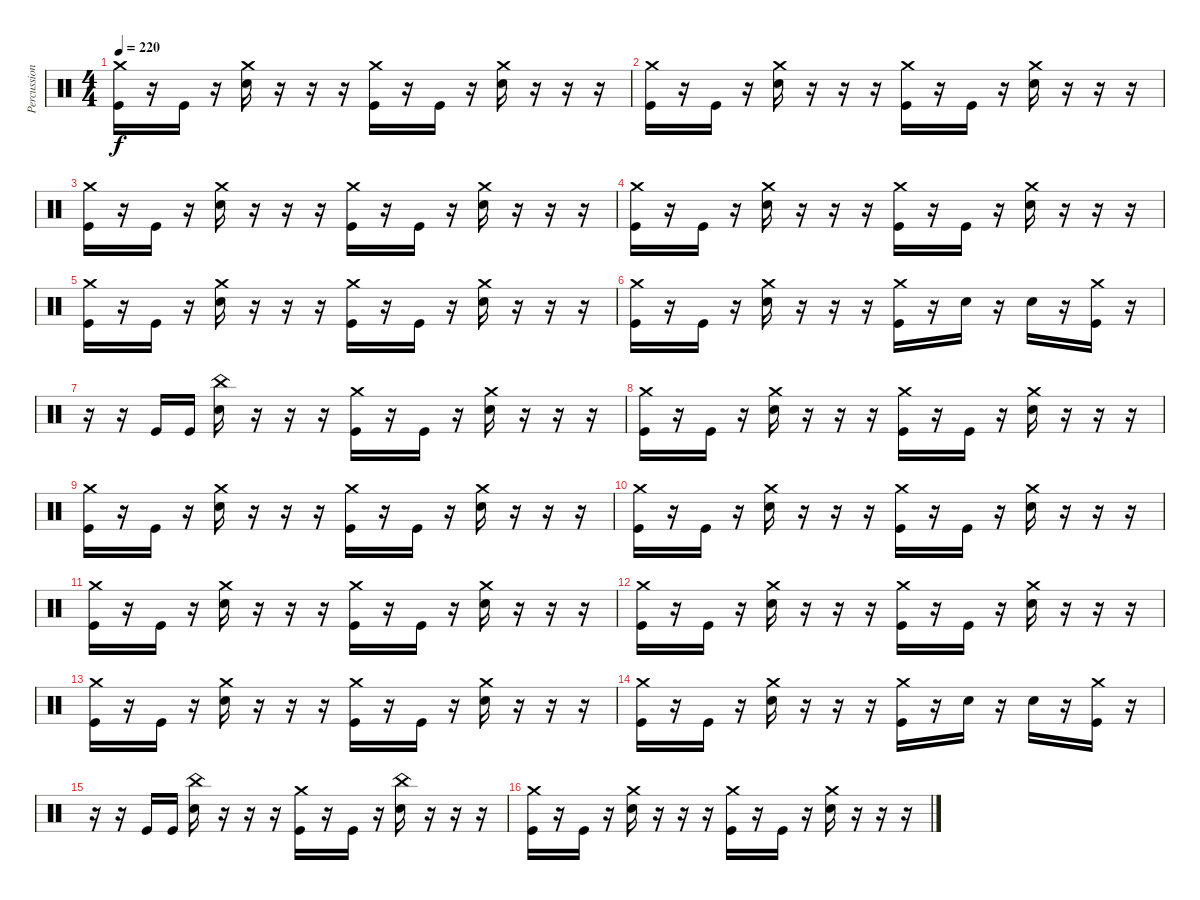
\track ("Percussion" "Percussion") {instrument percussion}
\staff {score}
\articulation defaults
\ts (4 4)
\tempo 220
\clef neutral
\ks c
("Crash medium (hit)" "Kick (hit)").16{dy f} r.16 "Kick (hit)".16 r.16 ("Crash medium (hit)" "Electric Snare (hit)").16 r.16 r.16 r.16 ("Crash medium (hit)" "Kick (hit)").16 r.16 "Kick (hit)".16 r.16 ("Crash medium (hit)" "Electric Snare (hit)").16 r.16 r.16 r.16 |
("Crash medium (hit)" "Kick (hit)").16 r.16 "Kick (hit)".16 r.16 ("Crash medium (hit)" "Electric Snare (hit)").16 r.16 r.16 r.16 ("Crash medium (hit)" "Kick (hit)").16 r.16 "Kick (hit)".16 r.16 ("Crash medium (hit)" "Electric Snare (hit)").16 r.16 r.16 r.16 |
("Crash medium (hit)" "Kick (hit)").16 r.16 "Kick (hit)".16 r.16 ("Crash medium (hit)" "Electric Snare (hit)").16 r.16 r.16 r.16 ("Crash medium (hit)" "Kick (hit)").16 r.16 "Kick (hit)".16 r.16 ("Crash medium (hit)" "Electric Snare (hit)").16 r.16 r.16 r.16 |
("Crash medium (hit)" "Kick (hit)").16 r.16 "Kick (hit)".16 r.16 ("Crash medium (hit)" "Electric Snare (hit)").16 r.16 r.16 r.16 ("Crash medium (hit)" "Kick (hit)").16 r.16 "Kick (hit)".16 r.16 ("Crash medium (hit)" "Electric Snare (hit)").16 r.16 r.16 r.16 |
("Crash medium (hit)" "Kick (hit)").16 r.16 "Kick (hit)".16 r.16 ("Crash medium (hit)" "Electric Snare (hit)").16 r.16 r.16 r.16 ("Crash medium (hit)" "Kick (hit)").16 r.16 "Kick (hit)".16 r.16 ("Crash medium (hit)" "Electric Snare (hit)").16 r.16 r.16 r.16 |
("Crash medium (hit)" "Kick (hit)").16 r.16 "Kick (hit)".16 r.16 ("Crash medium (hit)" "Electric Snare (hit)").16 r.16 r.16 r.16 ("Crash medium (hit)" "Kick (hit)").16 r.16 "Electric Snare (hit)".16 r.16 "Electric Snare (hit)".16 r.16 ("Crash medium (hit)" "Kick (hit)").16 r.16 |
r.16 r.16 "Kick (hit)".16 "Kick (hit)".16 ("China (hit)" "Electric Snare (hit)").16 r.16 r.16 r.16 ("Crash medium (hit)" "Kick (hit)").16 r.16 "Kick (hit)".16 r.16 ("Crash medium (hit)" "Electric Snare (hit)").16 r.16 r.16 r.16 |
("Crash medium (hit)" "Kick (hit)").16 r.16 "Kick (hit)".16 r.16 ("Crash medium (hit)" "Electric Snare (hit)").16 r.16 r.16 r.16 ("Crash medium (hit)" "Kick (hit)").16 r.16 "Kick (hit)".16 r.16 ("Crash medium (hit)" "Electric Snare (hit)").16 r.16 r.16 r.16 |
("Crash medium (hit)" "Kick (hit)").16 r.16 "Kick (hit)".16 r.16 ("Crash medium (hit)" "Electric Snare (hit)").16 r.16 r.16 r.16 ("Crash medium (hit)" "Kick (hit)").16 r.16 "Kick (hit)".16 r.16 ("Crash medium (hit)" "Electric Snare (hit)").16 r.16 r.16 r.16 |
("Crash medium (hit)" "Kick (hit)").16 r.16 "Kick (hit)".16 r.16 ("Crash medium (hit)" "Electric Snare (hit)").16 r.16 r.16 r.16 ("Crash medium (hit)" "Kick (hit)").16 r.16 "Kick (hit)".16 r.16 ("Crash medium (hit)" "Electric Snare (hit)").16 r.16 r.16 r.16 |
("Crash medium (hit)" "Kick (hit)").16 r.16 "Kick (hit)".16 r.16 ("Crash medium (hit)" "Electric Snare (hit)").16 r.16 r.16 r.16 ("Crash medium (hit)" "Kick (hit)").16 r.16 "Kick (hit)".16 r.16 ("Crash medium (hit)" "Electric Snare (hit)").16 r.16 r.16 r.16 |
("Crash medium (hit)" "Kick (hit)").16 r.16 "Kick (hit)".16 r.16 ("Crash medium (hit)" "Electric Snare (hit)").16 r.16 r.16 r.16 ("Crash medium (hit)" "Kick (hit)").16 r.16 "Kick (hit)".16 r.16 ("Crash medium (hit)" "Electric Snare (hit)").16 r.16 r.16 r.16 |
("Crash medium (hit)" "Kick (hit)").16 r.16 "Kick (hit)".16 r.16 ("Crash medium (hit)" "Electric Snare (hit)").16 r.16 r.16 r.16 ("Crash medium (hit)" "Kick (hit)").16 r.16 "Kick (hit)".16 r.16 ("Crash medium (hit)" "Electric Snare (hit)").16 r.16 r.16 r.16 |
("Crash medium (hit)" "Kick (hit)").16 r.16 "Kick (hit)".16 r.16 ("Crash medium (hit)" "Electric Snare (hit)").16 r.16 r.16 r.16 ("Crash medium (hit)" "Kick (hit)").16 r.16 "Electric Snare (hit)".16 r.16 "Electric Snare (hit)".16 r.16 ("Crash medium (hit)" "Kick (hit)").16 r.16 |
r.16 r.16 "Kick (hit)".16 "Kick (hit)".16 ("China (hit)" "Electric Snare (hit)").16 r.16 r.16 r.16 ("Crash medium (hit)" "Kick (hit)").16 r.16 "Kick (hit)".16 r.16 ("China (hit)" "Electric Snare (hit)").16 r.16 r.16 r.16 |
("Crash medium (hit)" "Kick (hit)").16 r.16 "Kick (hit)".16 r.16 ("Crash medium (hit)" "Electric Snare (hit)").16 r.16 r.16 r.16 ("Crash medium (hit)" "Kick (hit)").16 r.16 "Kick (hit)".16 r.16 ("Crash medium (hit)" "Electric Snare (hit)").16 r.16 r.16 r.16
